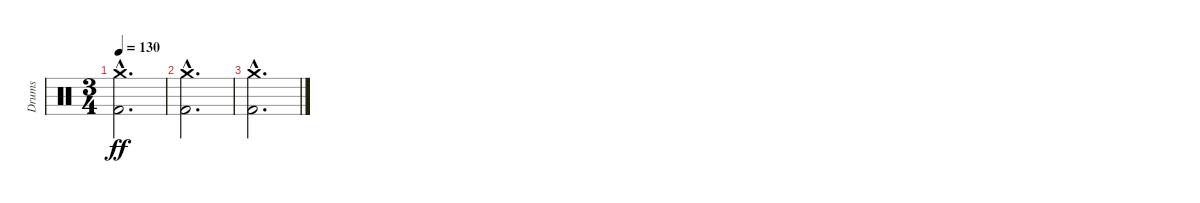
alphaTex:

\track ("Drums" "Drums") {instrument percussion}
\staff {score}
\articulation defaults
\ts (3 4)
\tempo 130
\clef neutral
\ks c
("Kick (hit) 2"{hac} "Crash medium (hit)"{hac}).2{d dy ff} |
("Kick (hit) 2"{hac} "Crash medium (hit)"{hac}).2{d} |
("Kick (hit) 2"{hac} "Crash medium (hit)"{hac}).2{d}
